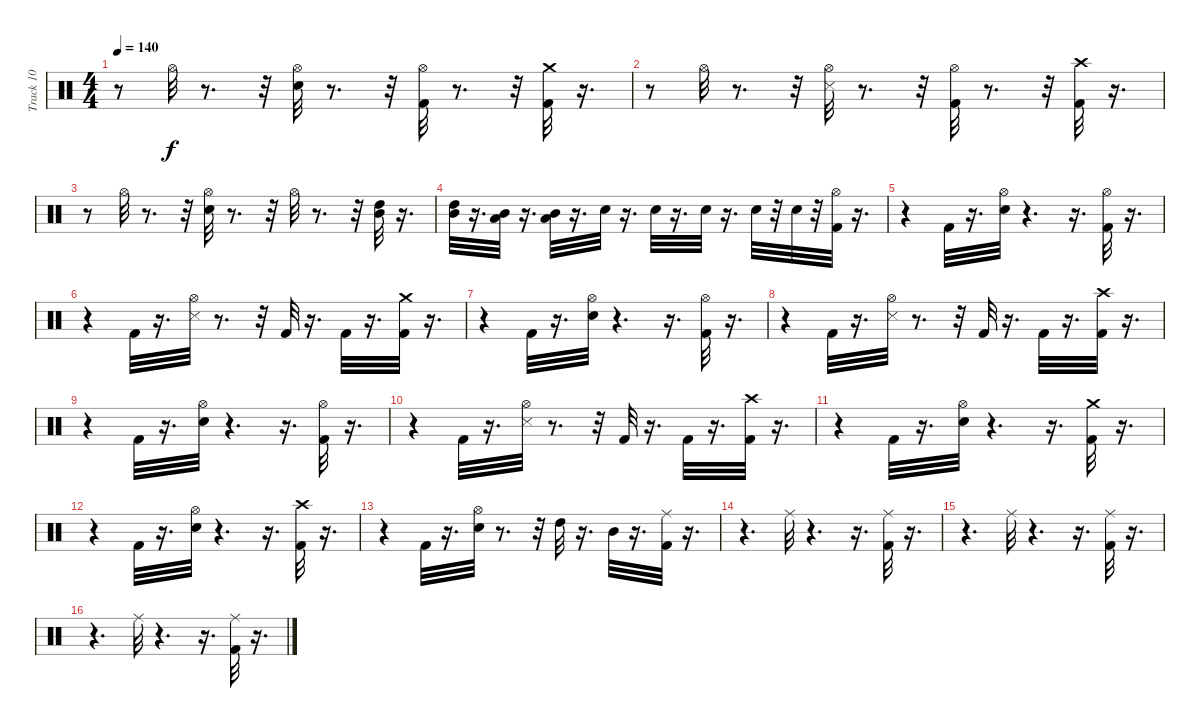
\track ("Track 10" "Track 10") {instrument percussion}
\staff {score}
\articulation defaults
\ts (4 4)
\tempo 140
\clef neutral
\ks c
r.8{dy f} "Hi-Hat (open)".32 r.8{d} r.32 ("Electric Snare (hit)" "Hi-Hat (open)").32 r.8{d} r.32 ("Kick (hit) 2" "Hi-Hat (open)").32 r.8{d} r.32 ("Kick (hit) 2" "Crash medium (hit)").32 r.16{d} |
r.8 "Hi-Hat (open)".32 r.8{d} r.32 ("Snare (side stick) 3" "Hi-Hat (open)").32 r.8{d} r.32 ("Hi-Hat (open)" "Kick (hit) 2").32 r.8{d} r.32 ("Crash high (hit)" "Kick (hit) 2").32 r.16{d} |
r.8 "Hi-Hat (open)".32 r.8{d} r.32 ("Hi-Hat (open)" "Electric Snare (hit)").32 r.8{d} r.32 "Hi-Hat (open)".32 r.8{d} r.32 ("High Tom (hit)" "Mid Tom (hit)").32 r.16{d} |
("High Tom (hit)" "Mid Tom (hit)").32 r.16{d} ("Mid Tom (hit)" "Low Tom (hit)").32 r.16{d} ("Low Tom (hit)" "Mid Tom (hit)").32 r.16{d} "Electric Snare (hit)".32 r.16{d} "Electric Snare (hit)".32 r.16{d} "Electric Snare (hit)".32 r.16{d} "Electric Snare (hit)".32 r.32 "Electric Snare (hit)".32 r.32 ("Kick (hit) 2" "Hi-Hat (open)").32 r.16{d} |
r.4 "Kick (hit) 2".32 r.16{d} ("Hi-Hat (open)" "Electric Snare (hit)").32 r.4{d} r.16{d} ("Hi-Hat (open)" "Kick (hit) 2").32 r.16{d} |
r.4 "Kick (hit) 2".32 r.16{d} ("Snare (side stick) 3" "Hi-Hat (open)").32 r.8{d} r.32 "Kick (hit) 2".32 r.16{d} "Kick (hit) 2".32 r.16{d} ("Kick (hit) 2" "Crash medium (hit)").32 r.16{d} |
r.4 "Kick (hit) 2".32 r.16{d} ("Electric Snare (hit)" "Hi-Hat (open)").32 r.4{d} r.16{d} ("Hi-Hat (open)" "Kick (hit) 2").32 r.16{d} |
r.4 "Kick (hit) 2".32 r.16{d} ("Snare (side stick) 3" "Hi-Hat (open)").32 r.8{d} r.32 "Kick (hit) 2".32 r.16{d} "Kick (hit) 2".32 r.16{d} ("Kick (hit) 2" "Crash high (hit)").32 r.16{d} |
r.4 "Kick (hit) 2".32 r.16{d} ("Hi-Hat (open)" "Electric Snare (hit)").32 r.4{d} r.16{d} ("Hi-Hat (open)" "Kick (hit) 2").32 r.16{d} |
r.4 "Kick (hit) 2".32 r.16{d} ("Hi-Hat (open)" "Snare (side stick) 3").32 r.8{d} r.32 "Kick (hit) 2".32 r.16{d} "Kick (hit) 2".32 r.16{d} ("Kick (hit) 2" "Crash high (hit)").32 r.16{d} |
r.4 "Kick (hit) 2".32 r.16{d} ("Electric Snare (hit)" "Hi-Hat (open)").32 r.4{d} r.16{d} ("Kick (hit) 2" "Crash medium (hit)").32 r.16{d} |
r.4 "Kick (hit) 2".32 r.16{d} ("Hi-Hat (open)" "Electric Snare (hit)").32 r.4{d} r.16{d} ("Kick (hit) 2" "Crash high (hit)").32 r.16{d} |
r.4 "Kick (hit) 2".32 r.16{d} ("Hi-Hat (open)" "Electric Snare (hit)").32 r.8{d} r.32 "High Tom (hit)".32 r.16{d} "Mid Tom (hit)".32 r.16{d} ("Kick (hit) 2" "Ride (middle)").32 r.16{d} |
r.4{d} "Ride (middle)".32 r.4{d} r.16{d} ("Kick (hit) 2" "Ride (middle)").32 r.16{d} |
r.4{d} "Ride (middle)".32 r.4{d} r.16{d} ("Ride (middle)" "Kick (hit) 2").32 r.16{d} |
r.4{d} "Ride (middle)".32 r.4{d} r.16{d} ("Ride (middle)" "Kick (hit) 2").32 r.16{d}
